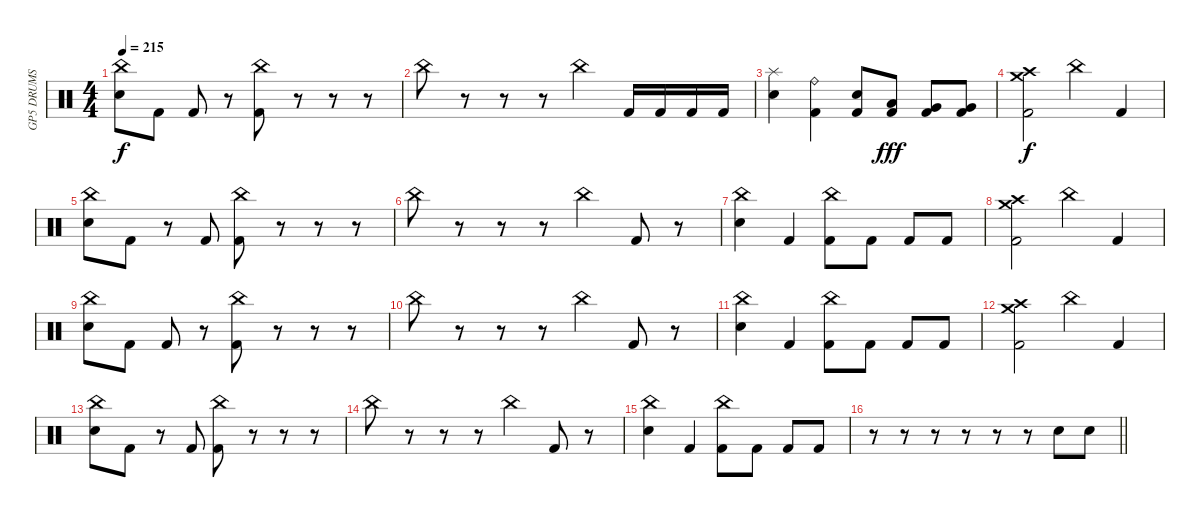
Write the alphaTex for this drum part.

\track ("GP5 DRUMS" "GP5 DRUMS") {instrument percussion}
\staff {score}
\articulation defaults
\ts (4 4)
\tempo 215
\clef neutral
\ks c
("China (hit)" "Electric Snare (hit)").8{dy f} "Kick (hit) 2".8 "Kick (hit) 2".8 r.8 ("China (hit)" "Kick (hit) 2").8 r.8 r.8 r.8 |
"China (hit)".8 r.8 r.8 r.8 "China (hit)".4 "Kick (hit) 2".16 "Kick (hit) 2".16 "Kick (hit) 2".16 "Kick (hit) 2".16 |
("Splash (hit)" "Electric Snare (hit)").4 ("Ride (bell)" "Kick (hit) 2").4 ("Electric Snare (hit)" "Kick (hit) 2").8 ("Low Tom (hit)" "Kick (hit) 2").8{dy fff} ("Very Low Tom (hit)" "Kick (hit) 2").8 ("Very Low Tom (hit)" "Kick (hit) 2").8 |
("Crash medium (hit)" "Crash high (hit)" "Kick (hit) 2").2{dy f} "China (hit)".4 "Kick (hit) 2".4 |
("China (hit)" "Electric Snare (hit)").8 "Kick (hit) 2".8 r.8 "Kick (hit) 2".8 ("China (hit)" "Kick (hit) 2").8 r.8 r.8 r.8 |
"China (hit)".8 r.8 r.8 r.8 "China (hit)".4 "Kick (hit) 2".8 r.8 |
("China (hit)" "Electric Snare (hit)").4 "Kick (hit) 2".4 ("China (hit)" "Kick (hit) 2").8 "Kick (hit) 2".8 "Kick (hit) 2".8 "Kick (hit) 2".8 |
("Crash medium (hit)" "Crash high (hit)" "Kick (hit) 2").2 "China (hit)".4 "Kick (hit) 2".4 |
("China (hit)" "Electric Snare (hit)").8 "Kick (hit) 2".8 "Kick (hit) 2".8 r.8 ("China (hit)" "Kick (hit) 2").8 r.8 r.8 r.8 |
"China (hit)".8 r.8 r.8 r.8 "China (hit)".4 "Kick (hit) 2".8 r.8 |
("China (hit)" "Electric Snare (hit)").4 "Kick (hit) 2".4 ("China (hit)" "Kick (hit) 2").8 "Kick (hit) 2".8 "Kick (hit) 2".8 "Kick (hit) 2".8 |
("Crash medium (hit)" "Crash high (hit)" "Kick (hit) 2").2 "China (hit)".4 "Kick (hit) 2".4 |
("China (hit)" "Electric Snare (hit)").8 "Kick (hit) 2".8 r.8 "Kick (hit) 2".8 ("China (hit)" "Kick (hit) 2").8 r.8 r.8 r.8 |
"China (hit)".8 r.8 r.8 r.8 "China (hit)".4 "Kick (hit) 2".8 r.8 |
("China (hit)" "Electric Snare (hit)").4 "Kick (hit) 2".4 ("China (hit)" "Kick (hit) 2").8 "Kick (hit) 2".8 "Kick (hit) 2".8 "Kick (hit) 2".8 |
\barLineRight lightlight
r.8 r.8 r.8 r.8 r.8 r.8 "Electric Snare (hit)".8 "Electric Snare (hit)".8
